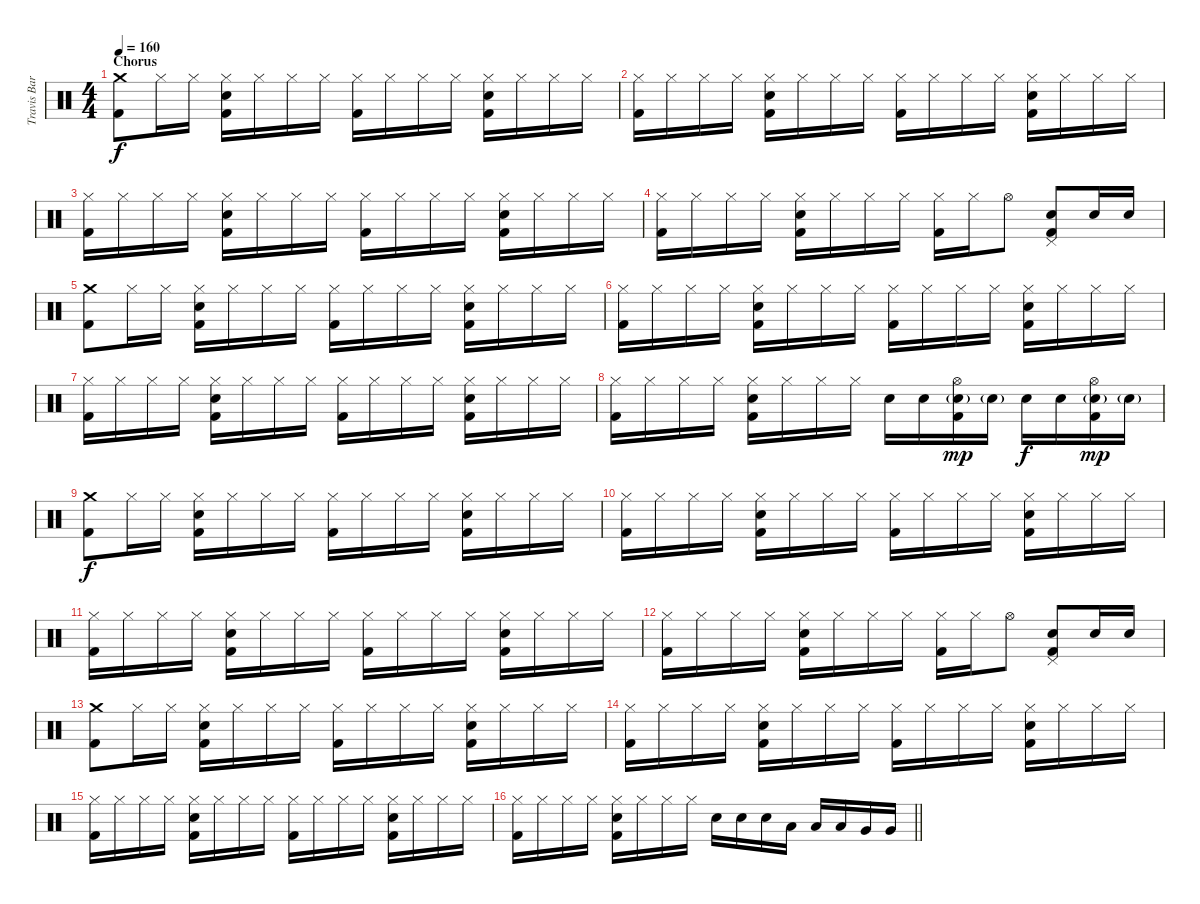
\track ("Travis Barker - Drums" "Travis Bar") {instrument percussion}
\staff {score}
\articulation defaults
\ts (4 4)
\section ("" "Chorus")
\tempo 160
\clef neutral
\ks c
("Crash medium (hit)" "Kick (hit) 2").8{dy f} "Hi-Hat (closed)".16 "Hi-Hat (closed)".16 ("Hi-Hat (closed)" "Electric Snare (hit)" "Kick (hit) 2").16 "Hi-Hat (closed)".16 "Hi-Hat (closed)".16 "Hi-Hat (closed)".16 ("Hi-Hat (closed)" "Kick (hit) 2").16 "Hi-Hat (closed)".16 "Hi-Hat (closed)".16 "Hi-Hat (closed)".16 ("Hi-Hat (closed)" "Electric Snare (hit)" "Kick (hit) 2").16 "Hi-Hat (closed)".16 "Hi-Hat (closed)".16 "Hi-Hat (closed)".16 |
("Hi-Hat (closed)" "Kick (hit) 2").16 "Hi-Hat (closed)".16 "Hi-Hat (closed)".16 "Hi-Hat (closed)".16 ("Hi-Hat (closed)" "Electric Snare (hit)" "Kick (hit) 2").16 "Hi-Hat (closed)".16 "Hi-Hat (closed)".16 "Hi-Hat (closed)".16 ("Hi-Hat (closed)" "Kick (hit) 2").16 "Hi-Hat (closed)".16 "Hi-Hat (closed)".16 "Hi-Hat (closed)".16 ("Hi-Hat (closed)" "Electric Snare (hit)" "Kick (hit) 2").16 "Hi-Hat (closed)".16 "Hi-Hat (closed)".16 "Hi-Hat (closed)".16 |
("Hi-Hat (closed)" "Kick (hit) 2").16 "Hi-Hat (closed)".16 "Hi-Hat (closed)".16 "Hi-Hat (closed)".16 ("Hi-Hat (closed)" "Electric Snare (hit)" "Kick (hit) 2").16 "Hi-Hat (closed)".16 "Hi-Hat (closed)".16 "Hi-Hat (closed)".16 ("Hi-Hat (closed)" "Kick (hit) 2").16 "Hi-Hat (closed)".16 "Hi-Hat (closed)".16 "Hi-Hat (closed)".16 ("Hi-Hat (closed)" "Electric Snare (hit)" "Kick (hit) 2").16 "Hi-Hat (closed)".16 "Hi-Hat (closed)".16 "Hi-Hat (closed)".16 |
("Hi-Hat (closed)" "Kick (hit) 2").16 "Hi-Hat (closed)".16 "Hi-Hat (closed)".16 "Hi-Hat (closed)".16 ("Hi-Hat (closed)" "Electric Snare (hit)" "Kick (hit) 2").16 "Hi-Hat (closed)".16 "Hi-Hat (closed)".16 "Hi-Hat (closed)".16 ("Hi-Hat (closed)" "Kick (hit) 2").16 "Hi-Hat (closed)".16 "Hi-Hat (open)".8 ("Pedal Hi-Hat (hit)" "Electric Snare (hit)" "Kick (hit) 2").8 "Electric Snare (hit)".16 "Electric Snare (hit)".16 |
("Crash medium (hit)" "Kick (hit) 2").8 "Hi-Hat (closed)".16 "Hi-Hat (closed)".16 ("Hi-Hat (closed)" "Electric Snare (hit)" "Kick (hit) 2").16 "Hi-Hat (closed)".16 "Hi-Hat (closed)".16 "Hi-Hat (closed)".16 ("Hi-Hat (closed)" "Kick (hit) 2").16 "Hi-Hat (closed)".16 "Hi-Hat (closed)".16 "Hi-Hat (closed)".16 ("Hi-Hat (closed)" "Electric Snare (hit)" "Kick (hit) 2").16 "Hi-Hat (closed)".16 "Hi-Hat (closed)".16 "Hi-Hat (closed)".16 |
("Hi-Hat (closed)" "Kick (hit) 2").16 "Hi-Hat (closed)".16 "Hi-Hat (closed)".16 "Hi-Hat (closed)".16 ("Hi-Hat (closed)" "Electric Snare (hit)" "Kick (hit) 2").16 "Hi-Hat (closed)".16 "Hi-Hat (closed)".16 "Hi-Hat (closed)".16 ("Hi-Hat (closed)" "Kick (hit) 2").16 "Hi-Hat (closed)".16 "Hi-Hat (closed)".16 "Hi-Hat (closed)".16 ("Hi-Hat (closed)" "Electric Snare (hit)" "Kick (hit) 2").16 "Hi-Hat (closed)".16 "Hi-Hat (closed)".16 "Hi-Hat (closed)".16 |
("Hi-Hat (closed)" "Kick (hit) 2").16 "Hi-Hat (closed)".16 "Hi-Hat (closed)".16 "Hi-Hat (closed)".16 ("Hi-Hat (closed)" "Electric Snare (hit)" "Kick (hit) 2").16 "Hi-Hat (closed)".16 "Hi-Hat (closed)".16 "Hi-Hat (closed)".16 ("Hi-Hat (closed)" "Kick (hit) 2").16 "Hi-Hat (closed)".16 "Hi-Hat (closed)".16 "Hi-Hat (closed)".16 ("Hi-Hat (closed)" "Electric Snare (hit)" "Kick (hit) 2").16 "Hi-Hat (closed)".16 "Hi-Hat (closed)".16 "Hi-Hat (closed)".16 |
("Hi-Hat (closed)" "Kick (hit) 2").16 "Hi-Hat (closed)".16 "Hi-Hat (closed)".16 "Hi-Hat (closed)".16 ("Hi-Hat (closed)" "Electric Snare (hit)" "Kick (hit) 2").16 "Hi-Hat (closed)".16 "Hi-Hat (closed)".16 "Hi-Hat (closed)".16 "Electric Snare (hit)".16 "Electric Snare (hit)".16 ("Hi-Hat (open)" "Electric Snare (hit)"{g} "Kick (hit) 2").16{dy mp} "Electric Snare (hit)"{g}.16 "Electric Snare (hit)".16{dy f} "Electric Snare (hit)".16 ("Hi-Hat (open)" "Electric Snare (hit)"{g} "Kick (hit) 2").16{dy mp} "Electric Snare (hit)"{g}.16 |
("Crash medium (hit)" "Kick (hit) 2").8{dy f} "Hi-Hat (closed)".16 "Hi-Hat (closed)".16 ("Hi-Hat (closed)" "Electric Snare (hit)" "Kick (hit) 2").16 "Hi-Hat (closed)".16 "Hi-Hat (closed)".16 "Hi-Hat (closed)".16 ("Hi-Hat (closed)" "Kick (hit) 2").16 "Hi-Hat (closed)".16 "Hi-Hat (closed)".16 "Hi-Hat (closed)".16 ("Hi-Hat (closed)" "Electric Snare (hit)" "Kick (hit) 2").16 "Hi-Hat (closed)".16 "Hi-Hat (closed)".16 "Hi-Hat (closed)".16 |
("Hi-Hat (closed)" "Kick (hit) 2").16 "Hi-Hat (closed)".16 "Hi-Hat (closed)".16 "Hi-Hat (closed)".16 ("Hi-Hat (closed)" "Electric Snare (hit)" "Kick (hit) 2").16 "Hi-Hat (closed)".16 "Hi-Hat (closed)".16 "Hi-Hat (closed)".16 ("Hi-Hat (closed)" "Kick (hit) 2").16 "Hi-Hat (closed)".16 "Hi-Hat (closed)".16 "Hi-Hat (closed)".16 ("Hi-Hat (closed)" "Electric Snare (hit)" "Kick (hit) 2").16 "Hi-Hat (closed)".16 "Hi-Hat (closed)".16 "Hi-Hat (closed)".16 |
("Hi-Hat (closed)" "Kick (hit) 2").16 "Hi-Hat (closed)".16 "Hi-Hat (closed)".16 "Hi-Hat (closed)".16 ("Hi-Hat (closed)" "Electric Snare (hit)" "Kick (hit) 2").16 "Hi-Hat (closed)".16 "Hi-Hat (closed)".16 "Hi-Hat (closed)".16 ("Hi-Hat (closed)" "Kick (hit) 2").16 "Hi-Hat (closed)".16 "Hi-Hat (closed)".16 "Hi-Hat (closed)".16 ("Hi-Hat (closed)" "Electric Snare (hit)" "Kick (hit) 2").16 "Hi-Hat (closed)".16 "Hi-Hat (closed)".16 "Hi-Hat (closed)".16 |
("Hi-Hat (closed)" "Kick (hit) 2").16 "Hi-Hat (closed)".16 "Hi-Hat (closed)".16 "Hi-Hat (closed)".16 ("Hi-Hat (closed)" "Electric Snare (hit)" "Kick (hit) 2").16 "Hi-Hat (closed)".16 "Hi-Hat (closed)".16 "Hi-Hat (closed)".16 ("Hi-Hat (closed)" "Kick (hit) 2").16 "Hi-Hat (closed)".16 "Hi-Hat (open)".8 ("Pedal Hi-Hat (hit)" "Electric Snare (hit)" "Kick (hit) 2").8 "Electric Snare (hit)".16 "Electric Snare (hit)".16 |
("Crash medium (hit)" "Kick (hit) 2").8 "Hi-Hat (closed)".16 "Hi-Hat (closed)".16 ("Hi-Hat (closed)" "Electric Snare (hit)" "Kick (hit) 2").16 "Hi-Hat (closed)".16 "Hi-Hat (closed)".16 "Hi-Hat (closed)".16 ("Hi-Hat (closed)" "Kick (hit) 2").16 "Hi-Hat (closed)".16 "Hi-Hat (closed)".16 "Hi-Hat (closed)".16 ("Hi-Hat (closed)" "Electric Snare (hit)" "Kick (hit) 2").16 "Hi-Hat (closed)".16 "Hi-Hat (closed)".16 "Hi-Hat (closed)".16 |
("Hi-Hat (closed)" "Kick (hit) 2").16 "Hi-Hat (closed)".16 "Hi-Hat (closed)".16 "Hi-Hat (closed)".16 ("Hi-Hat (closed)" "Electric Snare (hit)" "Kick (hit) 2").16 "Hi-Hat (closed)".16 "Hi-Hat (closed)".16 "Hi-Hat (closed)".16 ("Hi-Hat (closed)" "Kick (hit) 2").16 "Hi-Hat (closed)".16 "Hi-Hat (closed)".16 "Hi-Hat (closed)".16 ("Hi-Hat (closed)" "Electric Snare (hit)" "Kick (hit) 2").16 "Hi-Hat (closed)".16 "Hi-Hat (closed)".16 "Hi-Hat (closed)".16 |
("Hi-Hat (closed)" "Kick (hit) 2").16 "Hi-Hat (closed)".16 "Hi-Hat (closed)".16 "Hi-Hat (closed)".16 ("Hi-Hat (closed)" "Electric Snare (hit)" "Kick (hit) 2").16 "Hi-Hat (closed)".16 "Hi-Hat (closed)".16 "Hi-Hat (closed)".16 ("Hi-Hat (closed)" "Kick (hit) 2").16 "Hi-Hat (closed)".16 "Hi-Hat (closed)".16 "Hi-Hat (closed)".16 ("Hi-Hat (closed)" "Electric Snare (hit)" "Kick (hit) 2").16 "Hi-Hat (closed)".16 "Hi-Hat (closed)".16 "Hi-Hat (closed)".16 |
\barLineRight lightlight
("Hi-Hat (closed)" "Kick (hit) 2").16 "Hi-Hat (closed)".16 "Hi-Hat (closed)".16 "Hi-Hat (closed)".16 ("Hi-Hat (closed)" "Electric Snare (hit)" "Kick (hit) 2").16 "Hi-Hat (closed)".16 "Hi-Hat (closed)".16 "Hi-Hat (closed)".16 "Electric Snare (hit)".16 "Electric Snare (hit)".16 "Electric Snare (hit)".16 "Low Tom (hit)".16 "Low Tom (hit)".16 "Low Tom (hit)".16 "Very Low Tom (hit)".16 "Very Low Tom (hit)".16
